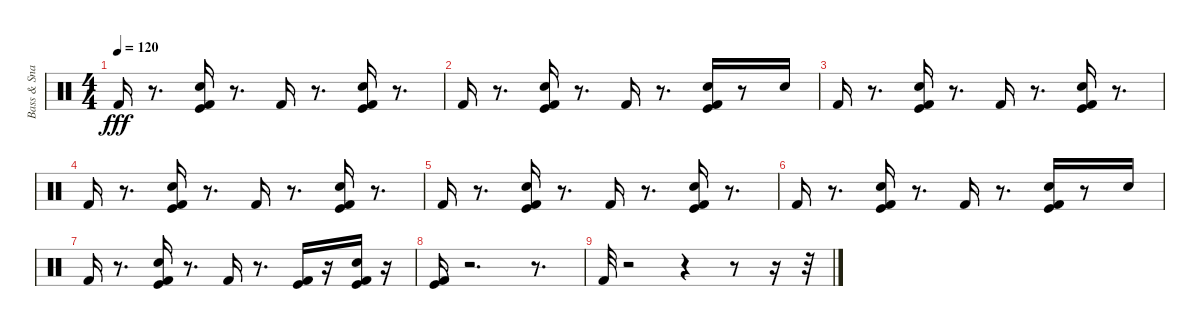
\track ("Bass & Snare Drums" "Bass & Sna") {instrument percussion}
\staff {score}
\articulation defaults
\ts (4 4)
\tempo 120
\clef neutral
\ks c "Kick (hit) 2".16{dy fff}
r.8{d} ("Electric Snare (hit)" "Kick (hit)" "Kick (hit) 2").16 r.8{d} "Kick (hit) 2".16 r.8{d} ("Electric Snare (hit)" "Kick (hit)" "Kick (hit) 2").16 r.8{d} |
"Kick (hit) 2".16 r.8{d} ("Electric Snare (hit)" "Kick (hit) 2" "Kick (hit)").16 r.8{d} "Kick (hit) 2".16 r.8{d} ("Electric Snare (hit)" "Kick (hit)" "Kick (hit) 2").16 r.8 "Electric Snare (hit)".16 |
"Kick (hit) 2".16 r.8{d} ("Electric Snare (hit)" "Kick (hit)" "Kick (hit) 2").16 r.8{d} "Kick (hit) 2".16 r.8{d} ("Electric Snare (hit)" "Kick (hit)" "Kick (hit) 2").16 r.8{d} |
"Kick (hit) 2".16 r.8{d} ("Electric Snare (hit)" "Kick (hit) 2" "Kick (hit)").16 r.8{d} "Kick (hit) 2".16 r.8{d} ("Electric Snare (hit)" "Kick (hit)" "Kick (hit) 2").16 r.8{d} |
"Kick (hit) 2".16 r.8{d} ("Electric Snare (hit)" "Kick (hit)" "Kick (hit) 2").16 r.8{d} "Kick (hit) 2".16 r.8{d} ("Electric Snare (hit)" "Kick (hit)" "Kick (hit) 2").16 r.8{d} |
"Kick (hit) 2".16 r.8{d} ("Electric Snare (hit)" "Kick (hit) 2" "Kick (hit)").16 r.8{d} "Kick (hit) 2".16 r.8{d} ("Electric Snare (hit)" "Kick (hit)" "Kick (hit) 2").16 r.8 "Electric Snare (hit)".16 |
"Kick (hit) 2".16 r.8{d} ("Electric Snare (hit)" "Kick (hit)" "Kick (hit) 2").16 r.8{d} "Kick (hit) 2".16 r.8{d} ("Kick (hit) 2" "Kick (hit)").16 r.16 ("Electric Snare (hit)" "Kick (hit) 2" "Kick (hit)").16 r.16 |
("Kick (hit) 2" "Kick (hit)").16 r.2{d} r.8{d} |
"Kick (hit) 2".32 r.2 r.4 r.8 r.16 r.32
